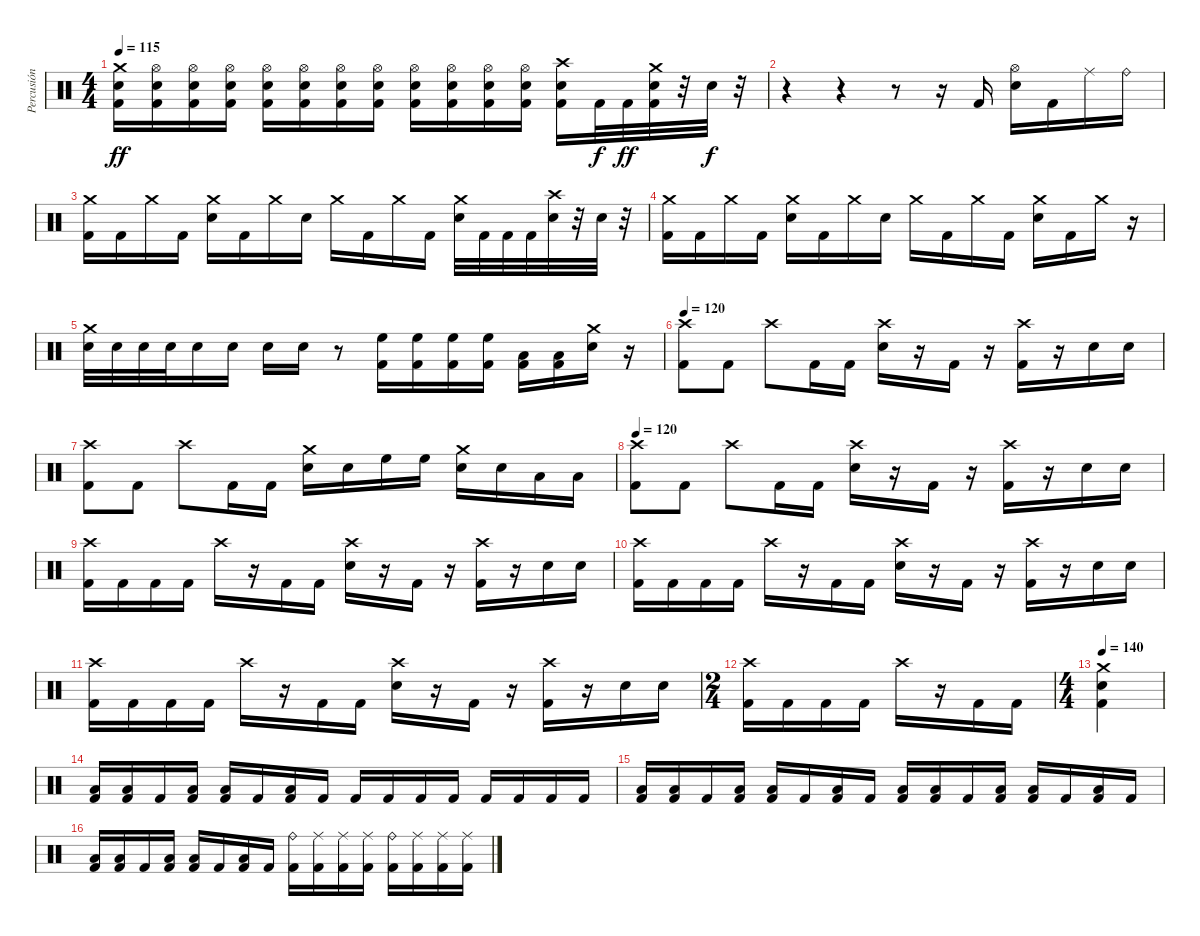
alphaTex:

\track ("Percusión" "Percusión") {instrument percussion}
\staff {score}
\articulation defaults
\ts (4 4)
\tempo 115
\clef neutral
\ks c
("Crash medium (hit)" "Electric Snare (hit)" "Kick (hit) 2").16{dy ff} ("Hi-Hat (open)" "Electric Snare (hit)" "Kick (hit) 2").16 ("Hi-Hat (open)" "Electric Snare (hit)" "Kick (hit) 2").16 ("Hi-Hat (open)" "Electric Snare (hit)" "Kick (hit) 2").16 ("Hi-Hat (open)" "Electric Snare (hit)" "Kick (hit) 2").16 ("Hi-Hat (open)" "Electric Snare (hit)" "Kick (hit) 2").16 ("Hi-Hat (open)" "Electric Snare (hit)" "Kick (hit) 2").16 ("Hi-Hat (open)" "Electric Snare (hit)" "Kick (hit) 2").16 ("Hi-Hat (open)" "Electric Snare (hit)" "Kick (hit) 2").16 ("Hi-Hat (open)" "Electric Snare (hit)" "Kick (hit) 2").16 ("Hi-Hat (open)" "Electric Snare (hit)" "Kick (hit) 2").16 ("Hi-Hat (open)" "Electric Snare (hit)" "Kick (hit) 2").16 ("Crash high (hit)" "Electric Snare (hit)" "Kick (hit) 2").16 "Kick (hit) 2".32{dy f} "Kick (hit) 2".32{dy ff} ("Crash medium (hit)" "Electric Snare (hit)" "Kick (hit) 2").32 r.32 "Electric Snare (hit)".32{dy f} r.32 |
r.4 r.4 r.8 r.16 "Kick (hit) 2".16 ("Hi-Hat (open)" "Electric Snare (hit)").16 "Kick (hit) 2".16 "Ride (middle)".16 "Ride (bell)".16 |
("Crash medium (hit)" "Kick (hit) 2").16 "Kick (hit) 2".16 "Crash medium (hit)".16 "Kick (hit) 2".16 ("Crash medium (hit)" "Electric Snare (hit)").16 "Kick (hit) 2".16 "Crash medium (hit)".16 "Electric Snare (hit)".16 "Crash medium (hit)".16 "Kick (hit) 2".16 "Crash medium (hit)".16 "Kick (hit) 2".16 ("Crash medium (hit)" "Electric Snare (hit)").32 "Kick (hit) 2".32 "Kick (hit) 2".32 "Kick (hit) 2".32 ("Crash high (hit)" "Electric Snare (hit)").32 r.32 "Electric Snare (hit)".32 r.32 |
("Crash medium (hit)" "Kick (hit) 2").16 "Kick (hit) 2".16 "Crash medium (hit)".16 "Kick (hit) 2".16 ("Crash medium (hit)" "Electric Snare (hit)").16 "Kick (hit) 2".16 "Crash medium (hit)".16 "Electric Snare (hit)".16 "Crash medium (hit)".16 "Kick (hit) 2".16 "Crash medium (hit)".16 "Kick (hit) 2".16 ("Crash medium (hit)" "Electric Snare (hit)").16 "Kick (hit) 2".16 "Crash medium (hit)".16 r.16 |
("Crash medium (hit)" "Electric Snare (hit)").32 "Electric Snare (hit)".32 "Electric Snare (hit)".32 "Electric Snare (hit)".32 "Electric Snare (hit)".16 "Electric Snare (hit)".16 "Electric Snare (hit)".16 "Electric Snare (hit)".16 r.8 ("High Floor Tom (hit)" "Kick (hit) 2").16 ("High Floor Tom (hit)" "Kick (hit) 2").16 ("High Floor Tom (hit)" "Kick (hit) 2").16 ("High Floor Tom (hit)" "Kick (hit) 2").16 ("Low Tom (hit)" "Kick (hit) 2").16 ("Low Tom (hit)" "Kick (hit) 2").16 ("Crash medium (hit)" "Electric Snare (hit)").16 r.16 |
\tempo 120
("Crash high (hit)" "Kick (hit) 2").8 "Kick (hit) 2".8 "Crash high (hit)".8 "Kick (hit) 2".16 "Kick (hit) 2".16 ("Crash high (hit)" "Electric Snare (hit)").16 r.16 "Kick (hit) 2".16 r.16 ("Crash high (hit)" "Kick (hit) 2").16 r.16 "Electric Snare (hit)".16 "Electric Snare (hit)".16 |
("Crash high (hit)" "Kick (hit) 2").8 "Kick (hit) 2".8 "Crash high (hit)".8 "Kick (hit) 2".16 "Kick (hit) 2".16 ("Crash medium (hit)" "Electric Snare (hit)").16 "Electric Snare (hit)".16 "High Floor Tom (hit)".16 "High Floor Tom (hit)".16 ("Crash medium (hit)" "Electric Snare (hit)").16 "Electric Snare (hit)".16 "Low Tom (hit)".16 "Low Tom (hit)".16 |
\tempo 120
("Crash high (hit)" "Kick (hit) 2").8 "Kick (hit) 2".8 "Crash high (hit)".8 "Kick (hit) 2".16 "Kick (hit) 2".16 ("Crash high (hit)" "Electric Snare (hit)").16 r.16 "Kick (hit) 2".16 r.16 ("Crash high (hit)" "Kick (hit) 2").16 r.16 "Electric Snare (hit)".16 "Electric Snare (hit)".16 |
("Crash high (hit)" "Kick (hit) 2").16 "Kick (hit) 2".16 "Kick (hit) 2".16 "Kick (hit) 2".16 "Crash high (hit)".16 r.16 "Kick (hit) 2".16 "Kick (hit) 2".16 ("Crash high (hit)" "Electric Snare (hit)").16 r.16 "Kick (hit) 2".16 r.16 ("Crash high (hit)" "Kick (hit) 2").16 r.16 "Electric Snare (hit)".16 "Electric Snare (hit)".16 |
("Crash high (hit)" "Kick (hit) 2").16 "Kick (hit) 2".16 "Kick (hit) 2".16 "Kick (hit) 2".16 "Crash high (hit)".16 r.16 "Kick (hit) 2".16 "Kick (hit) 2".16 ("Crash high (hit)" "Electric Snare (hit)").16 r.16 "Kick (hit) 2".16 r.16 ("Crash high (hit)" "Kick (hit) 2").16 r.16 "Electric Snare (hit)".16 "Electric Snare (hit)".16 |
("Crash high (hit)" "Kick (hit) 2").16 "Kick (hit) 2".16 "Kick (hit) 2".16 "Kick (hit) 2".16 "Crash high (hit)".16 r.16 "Kick (hit) 2".16 "Kick (hit) 2".16 ("Crash high (hit)" "Electric Snare (hit)").16 r.16 "Kick (hit) 2".16 r.16 ("Crash high (hit)" "Kick (hit) 2").16 r.16 "Electric Snare (hit)".16 "Electric Snare (hit)".16 |
\ts (2 4)
("Crash high (hit)" "Kick (hit) 2").16 "Kick (hit) 2".16 "Kick (hit) 2".16 "Kick (hit) 2".16 "Crash high (hit)".16 r.16 "Kick (hit) 2".16 "Kick (hit) 2".16 |
\ts (4 4)
\tempo 140
("Crash medium (hit)" "Electric Snare (hit)" "Kick (hit) 2").4 |
("Low Floor Tom (hit)" "Kick (hit) 2").16 ("Low Floor Tom (hit)" "Kick (hit) 2").16 "Kick (hit) 2".16 ("Low Floor Tom (hit)" "Kick (hit) 2").16 ("Low Floor Tom (hit)" "Kick (hit) 2").16 "Kick (hit) 2".16 ("Low Floor Tom (hit)" "Kick (hit) 2").16 "Kick (hit) 2".16 "Kick (hit) 2".16 "Kick (hit) 2".16 "Kick (hit) 2".16 "Kick (hit) 2".16 "Kick (hit) 2".16 "Kick (hit) 2".16 "Kick (hit) 2".16 "Kick (hit) 2".16 |
("Low Floor Tom (hit)" "Kick (hit) 2").16 ("Low Floor Tom (hit)" "Kick (hit) 2").16 "Kick (hit) 2".16 ("Low Floor Tom (hit)" "Kick (hit) 2").16 ("Low Floor Tom (hit)" "Kick (hit) 2").16 "Kick (hit) 2".16 ("Low Floor Tom (hit)" "Kick (hit) 2").16 "Kick (hit) 2".16 ("Low Floor Tom (hit)" "Kick (hit) 2").16 ("Low Floor Tom (hit)" "Kick (hit) 2").16 "Kick (hit) 2".16 ("Low Floor Tom (hit)" "Kick (hit) 2").16 ("Low Floor Tom (hit)" "Kick (hit) 2").16 "Kick (hit) 2".16 ("Low Floor Tom (hit)" "Kick (hit) 2").16 "Kick (hit) 2".16 |
("Low Floor Tom (hit)" "Kick (hit) 2").16 ("Low Floor Tom (hit)" "Kick (hit) 2").16 "Kick (hit) 2".16 ("Low Floor Tom (hit)" "Kick (hit) 2").16 ("Low Floor Tom (hit)" "Kick (hit) 2").16 "Kick (hit) 2".16 ("Low Floor Tom (hit)" "Kick (hit) 2").16 "Kick (hit) 2".16 ("Ride (bell)" "Kick (hit) 2").16 ("Ride (middle)" "Kick (hit) 2").16 ("Ride (middle)" "Kick (hit) 2").16 ("Ride (middle)" "Kick (hit) 2").16 ("Ride (bell)" "Kick (hit) 2").16 ("Ride (middle)" "Kick (hit) 2").16 ("Ride (middle)" "Kick (hit) 2").16 ("Ride (middle)" "Kick (hit) 2").16
